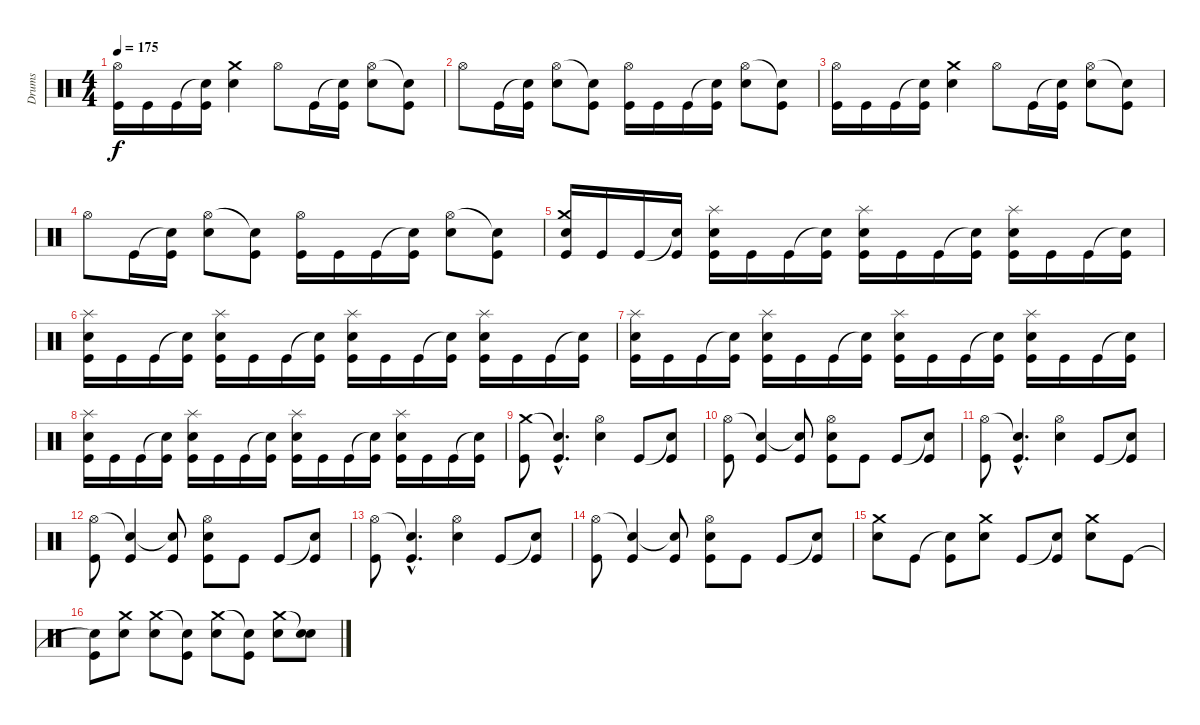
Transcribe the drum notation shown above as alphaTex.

\track ("Drums" "Drums") {instrument percussion}
\staff {score}
\articulation defaults
\ts (4 4)
\tempo 175
\clef neutral
\ks c
("Hi-Hat (open)" "Kick (hit)").16{dy f} "Kick (hit)".16 "Kick (hit)".16 ("Snare (hit)"{t} "Kick (hit)").16 ("Crash medium (hit)" "Electric Snare (hit)").4 "Hi-Hat (open)".8 "Kick (hit)".16 ("Snare (hit)"{t} "Kick (hit)").16 ("Hi-Hat (open)" "Electric Snare (hit)").8 ("Snare (hit)"{t} "Kick (hit)").8 |
"Hi-Hat (open)".8 "Kick (hit)".16 ("Snare (hit)"{t} "Kick (hit)").16 ("Hi-Hat (open)" "Electric Snare (hit)").8 ("Snare (hit)"{t} "Kick (hit)").8 ("Hi-Hat (open)" "Kick (hit)").16 "Kick (hit)".16 "Kick (hit)".16 ("Snare (hit)"{t} "Kick (hit)").16 ("Hi-Hat (open)" "Electric Snare (hit)").8 ("Snare (hit)"{t} "Kick (hit)").8 |
("Hi-Hat (open)" "Kick (hit)").16 "Kick (hit)".16 "Kick (hit)".16 ("Snare (hit)"{t} "Kick (hit)").16 ("Crash medium (hit)" "Electric Snare (hit)").4 "Hi-Hat (open)".8 "Kick (hit)".16 ("Snare (hit)"{t} "Kick (hit)").16 ("Hi-Hat (open)" "Electric Snare (hit)").8 ("Snare (hit)"{t} "Kick (hit)").8 |
"Hi-Hat (open)".8 "Kick (hit)".16 ("Snare (hit)"{t} "Kick (hit)").16 ("Hi-Hat (open)" "Electric Snare (hit)").8 ("Snare (hit)"{t} "Kick (hit)").8 ("Hi-Hat (open)" "Kick (hit)").16 "Kick (hit)".16 "Kick (hit)".16 ("Snare (hit)"{t} "Kick (hit)").16 ("Hi-Hat (open)" "Electric Snare (hit)").8 ("Snare (hit)"{t} "Kick (hit)").8 |
("Crash medium (hit)" "Electric Snare (hit)" "Kick (hit)").16 "Kick (hit)".16 "Kick (hit)".16 ("Snare (hit)"{t} "Kick (hit)").16 ("Splash (hit)" "Electric Snare (hit)" "Kick (hit)").16 "Kick (hit)".16 "Kick (hit)".16 ("Snare (hit)"{t} "Kick (hit)").16 ("Splash (hit)" "Electric Snare (hit)" "Kick (hit)").16 "Kick (hit)".16 "Kick (hit)".16 ("Snare (hit)"{t} "Kick (hit)").16 ("Splash (hit)" "Electric Snare (hit)" "Kick (hit)").16 "Kick (hit)".16 "Kick (hit)".16 ("Snare (hit)"{t} "Kick (hit)").16 |
("Splash (hit)" "Electric Snare (hit)" "Kick (hit)").16 "Kick (hit)".16 "Kick (hit)".16 ("Snare (hit)"{t} "Kick (hit)").16 ("Splash (hit)" "Electric Snare (hit)" "Kick (hit)").16 "Kick (hit)".16 "Kick (hit)".16 ("Snare (hit)"{t} "Kick (hit)").16 ("Splash (hit)" "Electric Snare (hit)" "Kick (hit)").16 "Kick (hit)".16 "Kick (hit)".16 ("Snare (hit)"{t} "Kick (hit)").16 ("Splash (hit)" "Electric Snare (hit)" "Kick (hit)").16 "Kick (hit)".16 "Kick (hit)".16 ("Snare (hit)"{t} "Kick (hit)").16 |
("Splash (hit)" "Electric Snare (hit)" "Kick (hit)").16 "Kick (hit)".16 "Kick (hit)".16 ("Snare (hit)"{t} "Kick (hit)").16 ("Splash (hit)" "Electric Snare (hit)" "Kick (hit)").16 "Kick (hit)".16 "Kick (hit)".16 ("Snare (hit)"{t} "Kick (hit)").16 ("Splash (hit)" "Electric Snare (hit)" "Kick (hit)").16 "Kick (hit)".16 "Kick (hit)".16 ("Snare (hit)"{t} "Kick (hit)").16 ("Splash (hit)" "Electric Snare (hit)" "Kick (hit)").16 "Kick (hit)".16 "Kick (hit)".16 ("Snare (hit)"{t} "Kick (hit)").16 |
("Splash (hit)" "Electric Snare (hit)" "Kick (hit)").16 "Kick (hit)".16 "Kick (hit)".16 ("Snare (hit)"{t} "Kick (hit)").16 ("Splash (hit)" "Electric Snare (hit)" "Kick (hit)").16 "Kick (hit)".16 "Kick (hit)".16 ("Snare (hit)"{t} "Kick (hit)").16 ("Splash (hit)" "Electric Snare (hit)" "Kick (hit)").16 "Kick (hit)".16 "Kick (hit)".16 ("Snare (hit)"{t} "Kick (hit)").16 ("Splash (hit)" "Electric Snare (hit)" "Kick (hit)").16 "Kick (hit)".16 "Kick (hit)".16 ("Snare (hit)"{t} "Kick (hit)").16 |
("Crash medium (hit)" "Kick (hit)").8 ("Snare (hit)"{hac t} "Kick (hit)"{hac}).4{d} ("Hi-Hat (open)" "Electric Snare (hit)").4 "Kick (hit)".8 ("Snare (hit)"{t} "Kick (hit)").8 |
("Hi-Hat (open)" "Kick (hit)").8 ("Snare (hit)"{t} "Kick (hit)").4 ("Snare (hit)"{t} "Kick (hit)").8 ("Hi-Hat (open)" "Electric Snare (hit)" "Kick (hit)").8 "Kick (hit)".8 "Kick (hit)".8 ("Snare (hit)"{t} "Kick (hit)").8 |
("Hi-Hat (open)" "Kick (hit)").8 ("Snare (hit)"{hac t} "Kick (hit)"{hac}).4{d} ("Hi-Hat (open)" "Electric Snare (hit)").4 "Kick (hit)".8 ("Snare (hit)"{t} "Kick (hit)").8 |
("Hi-Hat (open)" "Kick (hit)").8 ("Snare (hit)"{t} "Kick (hit)").4 ("Snare (hit)"{t} "Kick (hit)").8 ("Hi-Hat (open)" "Electric Snare (hit)" "Kick (hit)").8 "Kick (hit)".8 "Kick (hit)".8 ("Snare (hit)"{t} "Kick (hit)").8 |
("Hi-Hat (open)" "Kick (hit)").8 ("Snare (hit)"{hac t} "Kick (hit)"{hac}).4{d} ("Hi-Hat (open)" "Electric Snare (hit)").4 "Kick (hit)".8 ("Snare (hit)"{t} "Kick (hit)").8 |
("Hi-Hat (open)" "Kick (hit)").8 ("Snare (hit)"{t} "Kick (hit)").4 ("Snare (hit)"{t} "Kick (hit)").8 ("Hi-Hat (open)" "Electric Snare (hit)" "Kick (hit)").8 "Kick (hit)".8 "Kick (hit)".8 ("Snare (hit)"{t} "Kick (hit)").8 |
("Crash medium (hit)" "Electric Snare (hit)").8 "Kick (hit)".8 ("Snare (hit)"{t} "Kick (hit)").8 ("Crash medium (hit)" "Electric Snare (hit)").8 "Kick (hit)".8 ("Snare (hit)"{t} "Kick (hit)").8 ("Crash medium (hit)" "Electric Snare (hit)").8 "Kick (hit)".8 |
("Snare (hit)"{t} "Kick (hit)").8 ("Crash medium (hit)" "Electric Snare (hit)").8 ("Crash medium (hit)" "Electric Snare (hit)").8 ("Snare (hit)"{t} "Kick (hit)").8 ("Crash medium (hit)" "Electric Snare (hit)").8 ("Snare (hit)"{t} "Kick (hit)").8 ("Crash medium (hit)" "Electric Snare (hit)").8 ("Snare (hit)"{t} "Electric Snare (hit)").8
